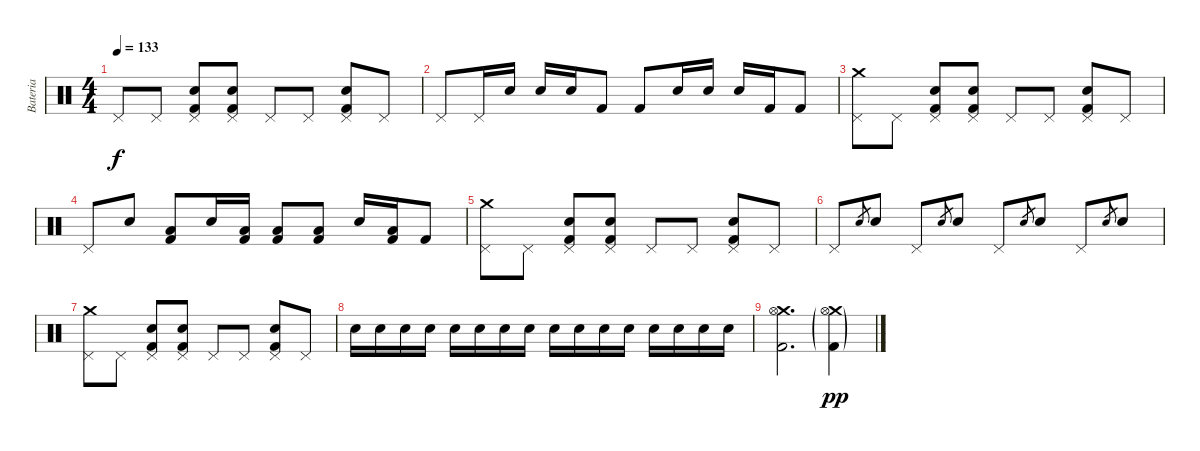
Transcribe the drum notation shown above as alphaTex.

\track ("Bateria" "Bateria") {instrument percussion}
\staff {score}
\articulation defaults
\ts (4 4)
\tempo 133
\clef neutral
\ks c "Pedal Hi-Hat (hit)".8{dy f} "Pedal Hi-Hat (hit)".8
("Kick (hit) 2" "Pedal Hi-Hat (hit)" "Electric Snare (hit)").8 ("Kick (hit) 2" "Pedal Hi-Hat (hit)" "Electric Snare (hit)").8 "Pedal Hi-Hat (hit)".8 "Pedal Hi-Hat (hit)".8 ("Kick (hit) 2" "Pedal Hi-Hat (hit)" "Electric Snare (hit)").8 "Pedal Hi-Hat (hit)".8 |
"Pedal Hi-Hat (hit)".8 "Pedal Hi-Hat (hit)".16 "Electric Snare (hit)".16 "Electric Snare (hit)".16 "Electric Snare (hit)".16 "Kick (hit) 2".8 "Kick (hit) 2".8 "Electric Snare (hit)".16 "Electric Snare (hit)".16 "Electric Snare (hit)".16 "Kick (hit) 2".16 "Kick (hit) 2".8 |
("Crash medium (hit)" "Pedal Hi-Hat (hit)").8 "Pedal Hi-Hat (hit)".8 ("Kick (hit) 2" "Pedal Hi-Hat (hit)" "Electric Snare (hit)").8 ("Kick (hit) 2" "Pedal Hi-Hat (hit)" "Electric Snare (hit)").8 "Pedal Hi-Hat (hit)".8 "Pedal Hi-Hat (hit)".8 ("Kick (hit) 2" "Pedal Hi-Hat (hit)" "Electric Snare (hit)").8 "Pedal Hi-Hat (hit)".8 |
"Pedal Hi-Hat (hit)".8 "Electric Snare (hit)".8 ("Kick (hit) 2" "Low Tom (hit)").8 "Electric Snare (hit)".16 ("Kick (hit) 2" "Low Tom (hit)").16 ("Kick (hit) 2" "Low Tom (hit)").8 ("Kick (hit) 2" "Low Tom (hit)").8 "Electric Snare (hit)".16 ("Kick (hit) 2" "Low Tom (hit)").16 "Kick (hit) 2".8 |
("Crash medium (hit)" "Pedal Hi-Hat (hit)").8 "Pedal Hi-Hat (hit)".8 ("Kick (hit) 2" "Pedal Hi-Hat (hit)" "Electric Snare (hit)").8 ("Kick (hit) 2" "Pedal Hi-Hat (hit)" "Electric Snare (hit)").8 "Pedal Hi-Hat (hit)".8 "Pedal Hi-Hat (hit)".8 ("Kick (hit) 2" "Pedal Hi-Hat (hit)" "Electric Snare (hit)").8 "Pedal Hi-Hat (hit)".8 |
"Pedal Hi-Hat (hit)".8 "Electric Snare (hit)".8{gr} "Electric Snare (hit)".8 "Pedal Hi-Hat (hit)".8 "Electric Snare (hit)".8{gr} "Electric Snare (hit)".8 "Pedal Hi-Hat (hit)".8 "Electric Snare (hit)".8{gr} "Electric Snare (hit)".8 "Pedal Hi-Hat (hit)".8 "Electric Snare (hit)".8{gr} "Electric Snare (hit)".8 |
("Crash medium (hit)" "Pedal Hi-Hat (hit)").8 "Pedal Hi-Hat (hit)".8 ("Kick (hit) 2" "Pedal Hi-Hat (hit)" "Electric Snare (hit)").8 ("Kick (hit) 2" "Pedal Hi-Hat (hit)" "Electric Snare (hit)").8 "Pedal Hi-Hat (hit)".8 "Pedal Hi-Hat (hit)".8 ("Kick (hit) 2" "Pedal Hi-Hat (hit)" "Electric Snare (hit)").8 "Pedal Hi-Hat (hit)".8 |
"Electric Snare (hit)".16 "Electric Snare (hit)".16 "Electric Snare (hit)".16 "Electric Snare (hit)".16 "Electric Snare (hit)".16 "Electric Snare (hit)".16 "Electric Snare (hit)".16 "Electric Snare (hit)".16 "Electric Snare (hit)".16 "Electric Snare (hit)".16 "Electric Snare (hit)".16 "Electric Snare (hit)".16 "Electric Snare (hit)".16 "Electric Snare (hit)".16 "Electric Snare (hit)".16 "Electric Snare (hit)".16 |
("Crash medium (hit)" "Kick (hit) 2" "Hi-Hat (open)").2{d} ("Crash medium (hit)"{g} "Kick (hit) 2"{g} "Hi-Hat (open)"{g}).4{dy pp}
